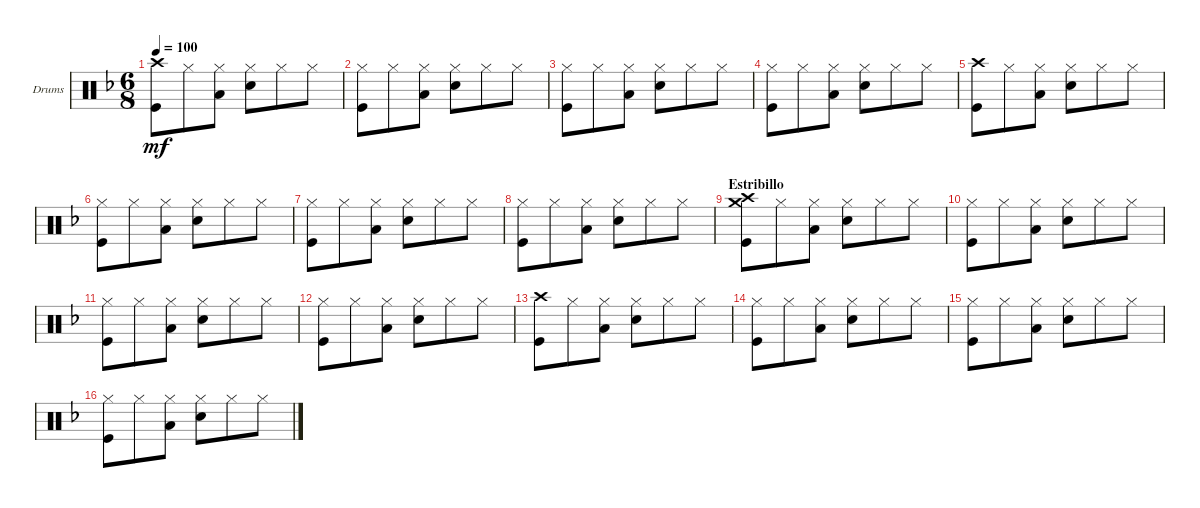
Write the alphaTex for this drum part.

\defaultSystemsLayout 4
\bracketExtendMode groupsimilarinstruments
\firstSystemTrackNameOrientation horizontal
\otherSystemsTrackNameOrientation horizontal
\track ("Drumkit" "Drums") {instrument percussion}
\staff {score}
\articulation defaults
\ts (6 8)
\tempo 100
\clef neutral
\ks dminor
("Kick (hit)" "Crash high (hit)").8{dy mf} "Hi-Hat (closed)".8 ("Hi-Hat (closed)" "Low Tom (hit)").8 ("Hi-Hat (closed)" "Snare (hit) 2").8 "Hi-Hat (closed)".8 "Hi-Hat (closed)".8 |
("Kick (hit)" "Hi-Hat (closed)").8 "Hi-Hat (closed)".8 ("Hi-Hat (closed)" "Low Tom (hit)").8 ("Hi-Hat (closed)" "Snare (hit) 2").8 "Hi-Hat (closed)".8 "Hi-Hat (closed)".8 |
("Kick (hit)" "Hi-Hat (closed)").8 "Hi-Hat (closed)".8 ("Hi-Hat (closed)" "Low Tom (hit)").8 ("Hi-Hat (closed)" "Snare (hit) 2").8 "Hi-Hat (closed)".8 "Hi-Hat (closed)".8 |
("Kick (hit)" "Hi-Hat (closed)").8 "Hi-Hat (closed)".8 ("Hi-Hat (closed)" "Low Tom (hit)").8 ("Hi-Hat (closed)" "Snare (hit) 2").8 "Hi-Hat (closed)".8 "Hi-Hat (closed)".8 |
("Kick (hit)" "Crash high (hit)").8 "Hi-Hat (closed)".8 ("Hi-Hat (closed)" "Low Tom (hit)").8 ("Hi-Hat (closed)" "Snare (hit) 2").8 "Hi-Hat (closed)".8 "Hi-Hat (closed)".8 |
("Kick (hit)" "Hi-Hat (closed)").8 "Hi-Hat (closed)".8 ("Hi-Hat (closed)" "Low Tom (hit)").8 ("Hi-Hat (closed)" "Snare (hit) 2").8 "Hi-Hat (closed)".8 "Hi-Hat (closed)".8 |
("Kick (hit)" "Hi-Hat (closed)").8 "Hi-Hat (closed)".8 ("Hi-Hat (closed)" "Low Tom (hit)").8 ("Hi-Hat (closed)" "Snare (hit) 2").8 "Hi-Hat (closed)".8 "Hi-Hat (closed)".8 |
("Kick (hit)" "Hi-Hat (closed)").8 "Hi-Hat (closed)".8 ("Hi-Hat (closed)" "Low Tom (hit)").8 ("Hi-Hat (closed)" "Snare (hit) 2").8 "Hi-Hat (closed)".8 "Hi-Hat (closed)".8 |
\section ("" "Estribillo")
("Kick (hit)" "Crash high (hit)" "Crash medium (hit)").8 "Hi-Hat (closed)".8 ("Hi-Hat (closed)" "Low Tom (hit)").8 ("Hi-Hat (closed)" "Snare (hit) 2").8 "Hi-Hat (closed)".8 "Hi-Hat (closed)".8 |
("Kick (hit)" "Hi-Hat (closed)").8 "Hi-Hat (closed)".8 ("Hi-Hat (closed)" "Low Tom (hit)").8 ("Hi-Hat (closed)" "Snare (hit) 2").8 "Hi-Hat (closed)".8 "Hi-Hat (closed)".8 |
("Kick (hit)" "Hi-Hat (closed)").8 "Hi-Hat (closed)".8 ("Hi-Hat (closed)" "Low Tom (hit)").8 ("Hi-Hat (closed)" "Snare (hit) 2").8 "Hi-Hat (closed)".8 "Hi-Hat (closed)".8 |
("Kick (hit)" "Hi-Hat (closed)").8 "Hi-Hat (closed)".8 ("Hi-Hat (closed)" "Low Tom (hit)").8 ("Hi-Hat (closed)" "Snare (hit) 2").8 "Hi-Hat (closed)".8 "Hi-Hat (closed)".8 |
("Kick (hit)" "Crash high (hit)").8 "Hi-Hat (closed)".8 ("Hi-Hat (closed)" "Low Tom (hit)").8 ("Hi-Hat (closed)" "Snare (hit) 2").8 "Hi-Hat (closed)".8 "Hi-Hat (closed)".8 |
("Kick (hit)" "Hi-Hat (closed)").8 "Hi-Hat (closed)".8 ("Hi-Hat (closed)" "Low Tom (hit)").8 ("Hi-Hat (closed)" "Snare (hit) 2").8 "Hi-Hat (closed)".8 "Hi-Hat (closed)".8 |
("Kick (hit)" "Hi-Hat (closed)").8 "Hi-Hat (closed)".8 ("Hi-Hat (closed)" "Low Tom (hit)").8 ("Hi-Hat (closed)" "Snare (hit) 2").8 "Hi-Hat (closed)".8 "Hi-Hat (closed)".8 |
("Kick (hit)" "Hi-Hat (closed)").8 "Hi-Hat (closed)".8 ("Hi-Hat (closed)" "Low Tom (hit)").8 ("Hi-Hat (closed)" "Snare (hit) 2").8 "Hi-Hat (closed)".8 "Hi-Hat (closed)".8
